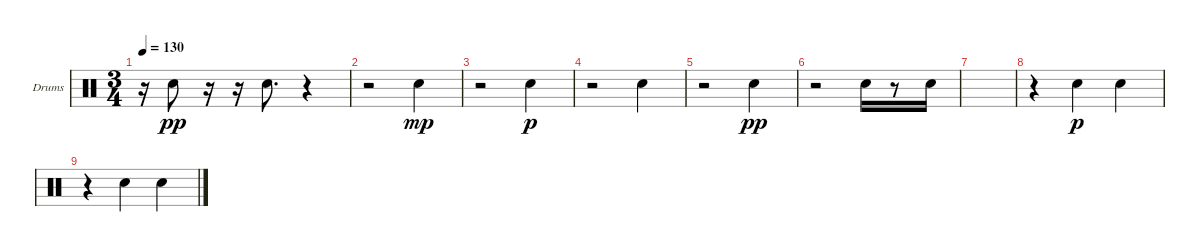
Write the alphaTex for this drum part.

\bracketExtendMode groupsimilarinstruments
\firstSystemTrackNameOrientation horizontal
\otherSystemsTrackNameOrientation horizontal
\track ("Drums" "Drums") {instrument percussion}
\staff {score}
\articulation defaults
\ts (3 4)
\tempo 130
\clef neutral
\ks c
r.16{dy pp} "Snare (hit) 2".8 r.16 r.16 "Snare (hit) 2".8{d} r.4 |
r.2 "Snare (hit) 2".4{dy mp} |
r.2 "Snare (hit) 2".4{dy p} |
r.2 "Snare (hit) 2".4 |
r.2 "Snare (hit) 2".4{dy pp} |
r.2 "Snare (hit) 2".16 r.8 "Snare (hit) 2".16 |
|
r.4 "Snare (hit) 2".4{dy p} "Snare (hit) 2".4 |
r.4 "Snare (hit) 2".4 "Snare (hit) 2".4
